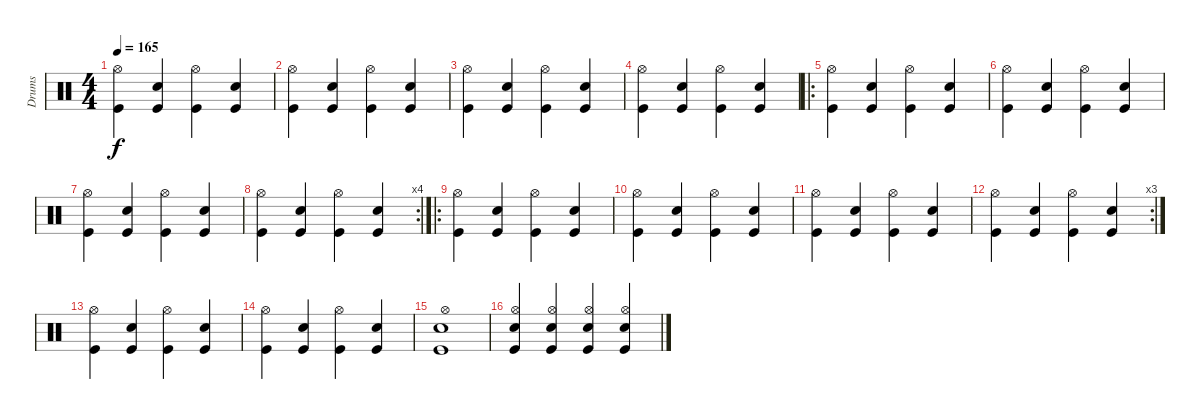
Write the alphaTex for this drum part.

\track ("Drums" "Drums") {instrument percussion}
\staff {score}
\articulation defaults
\ts (4 4)
\tempo 165
\clef neutral
\ks c
("Kick (hit)" "Hi-Hat (open)").4{dy f} ("Kick (hit)" "Snare (hit) 2").4 ("Kick (hit)" "Hi-Hat (open)").4 ("Kick (hit)" "Snare (hit) 2").4 |
("Kick (hit)" "Hi-Hat (open)").4 ("Kick (hit)" "Snare (hit) 2").4 ("Kick (hit)" "Hi-Hat (open)").4 ("Kick (hit)" "Snare (hit) 2").4 |
("Kick (hit)" "Hi-Hat (open)").4 ("Kick (hit)" "Snare (hit) 2").4 ("Kick (hit)" "Hi-Hat (open)").4 ("Kick (hit)" "Snare (hit) 2").4 |
("Kick (hit)" "Hi-Hat (open)").4 ("Kick (hit)" "Snare (hit) 2").4 ("Kick (hit)" "Hi-Hat (open)").4 ("Kick (hit)" "Snare (hit) 2").4 |
\ro
("Kick (hit)" "Hi-Hat (open)").4 ("Kick (hit)" "Snare (hit) 2").4 ("Kick (hit)" "Hi-Hat (open)").4 ("Kick (hit)" "Snare (hit) 2").4 |
("Kick (hit)" "Hi-Hat (open)").4 ("Kick (hit)" "Snare (hit) 2").4 ("Kick (hit)" "Hi-Hat (open)").4 ("Kick (hit)" "Snare (hit) 2").4 |
("Kick (hit)" "Hi-Hat (open)").4 ("Kick (hit)" "Snare (hit) 2").4 ("Kick (hit)" "Hi-Hat (open)").4 ("Kick (hit)" "Snare (hit) 2").4 |
\rc 4
("Kick (hit)" "Hi-Hat (open)").4 ("Kick (hit)" "Snare (hit) 2").4 ("Kick (hit)" "Hi-Hat (open)").4 ("Kick (hit)" "Snare (hit) 2").4 |
\ro
("Kick (hit)" "Hi-Hat (open)").4 ("Kick (hit)" "Snare (hit) 2").4 ("Kick (hit)" "Hi-Hat (open)").4 ("Kick (hit)" "Snare (hit) 2").4 |
("Kick (hit)" "Hi-Hat (open)").4 ("Kick (hit)" "Snare (hit) 2").4 ("Kick (hit)" "Hi-Hat (open)").4 ("Kick (hit)" "Snare (hit) 2").4 |
("Kick (hit)" "Hi-Hat (open)").4 ("Kick (hit)" "Snare (hit) 2").4 ("Kick (hit)" "Hi-Hat (open)").4 ("Kick (hit)" "Snare (hit) 2").4 |
\rc 3
("Kick (hit)" "Hi-Hat (open)").4 ("Kick (hit)" "Snare (hit) 2").4 ("Kick (hit)" "Hi-Hat (open)").4 ("Kick (hit)" "Snare (hit) 2").4 |
("Kick (hit)" "Hi-Hat (open)").4 ("Kick (hit)" "Snare (hit) 2").4 ("Kick (hit)" "Hi-Hat (open)").4 ("Kick (hit)" "Snare (hit) 2").4 |
("Kick (hit)" "Hi-Hat (open)").4 ("Kick (hit)" "Snare (hit) 2").4 ("Kick (hit)" "Hi-Hat (open)").4 ("Kick (hit)" "Snare (hit) 2").4 |
("Kick (hit)" "Hi-Hat (open)" "Snare (hit) 2").1 |
("Kick (hit)" "Hi-Hat (open)" "Snare (hit) 2").4 ("Kick (hit)" "Hi-Hat (open)" "Snare (hit) 2").4 ("Kick (hit)" "Hi-Hat (open)" "Snare (hit) 2").4 ("Kick (hit)" "Hi-Hat (open)" "Snare (hit) 2").4
